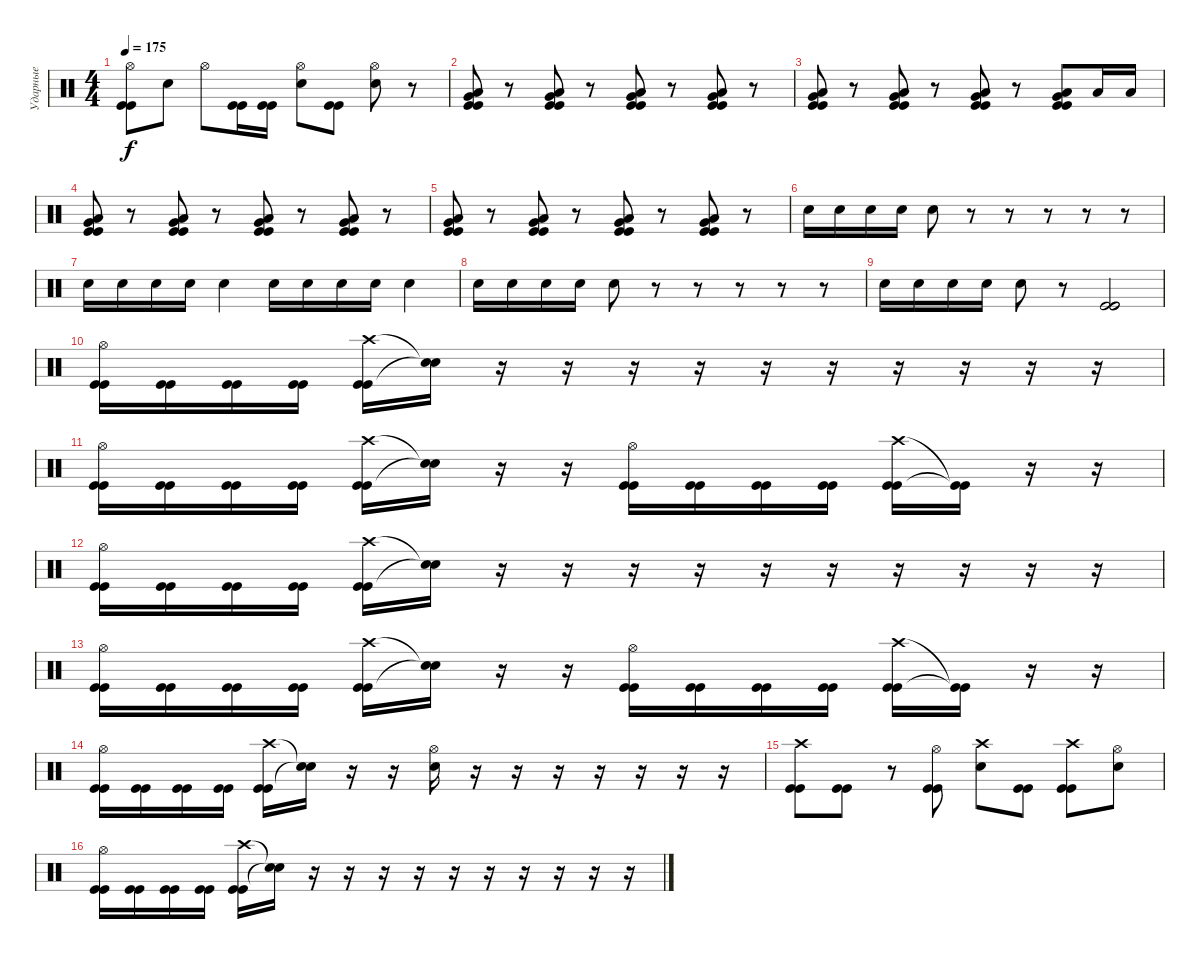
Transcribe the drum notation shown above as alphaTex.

\track ("Ударные" "Ударные") {instrument percussion}
\staff {score}
\articulation defaults
\ts (4 4)
\tempo 175
\clef neutral
\ks c
("Hi-Hat (open)" "Kick (hit)" "Kick (hit)").8{dy f} "Snare (hit) 2".8 "Hi-Hat (open)".8 ("Kick (hit)" "Kick (hit)").16 ("Kick (hit)" "Kick (hit)").16 ("Hi-Hat (open)" "Snare (hit) 2").8 ("Kick (hit)" "Kick (hit)").8 ("Hi-Hat (open)" "Snare (hit) 2").8 r.8 |
("Very Low Tom (hit)" "Low Floor Tom (hit)" "Kick (hit)" "Kick (hit)").8 r.8 ("Very Low Tom (hit)" "Low Floor Tom (hit)" "Kick (hit)" "Kick (hit)").8 r.8 ("Very Low Tom (hit)" "Low Floor Tom (hit)" "Kick (hit)" "Kick (hit)").8 r.8 ("Very Low Tom (hit)" "Low Floor Tom (hit)" "Kick (hit)" "Kick (hit)").8 r.8 |
("Very Low Tom (hit)" "Low Floor Tom (hit)" "Kick (hit)" "Kick (hit)").8 r.8 ("Very Low Tom (hit)" "Low Floor Tom (hit)" "Kick (hit)" "Kick (hit)").8 r.8 ("Very Low Tom (hit)" "Low Floor Tom (hit)" "Kick (hit)" "Kick (hit)").8 r.8 ("Very Low Tom (hit)" "Low Floor Tom (hit)" "Kick (hit)" "Kick (hit)").8 "Low Floor Tom (hit)".16 "Low Floor Tom (hit)".16 |
("Very Low Tom (hit)" "Low Floor Tom (hit)" "Kick (hit)" "Kick (hit)").8 r.8 ("Very Low Tom (hit)" "Low Floor Tom (hit)" "Kick (hit)" "Kick (hit)").8 r.8 ("Very Low Tom (hit)" "Low Floor Tom (hit)" "Kick (hit)" "Kick (hit)").8 r.8 ("Very Low Tom (hit)" "Low Floor Tom (hit)" "Kick (hit)" "Kick (hit)").8 r.8 |
("Very Low Tom (hit)" "Low Floor Tom (hit)" "Kick (hit)" "Kick (hit)").8 r.8 ("Very Low Tom (hit)" "Low Floor Tom (hit)" "Kick (hit)" "Kick (hit)").8 r.8 ("Very Low Tom (hit)" "Low Floor Tom (hit)" "Kick (hit)" "Kick (hit)").8 r.8 ("Very Low Tom (hit)" "Low Floor Tom (hit)" "Kick (hit)" "Kick (hit)").8 r.8 |
"Snare (hit) 2".16 "Snare (hit) 2".16 "Snare (hit) 2".16 "Snare (hit) 2".16 "Snare (hit) 2".8 r.8 r.8 r.8 r.8 r.8 |
"Snare (hit) 2".16 "Snare (hit) 2".16 "Snare (hit) 2".16 "Snare (hit) 2".16 "Snare (hit) 2".4 "Snare (hit) 2".16 "Snare (hit) 2".16 "Snare (hit) 2".16 "Snare (hit) 2".16 "Snare (hit) 2".4 |
"Snare (hit) 2".16 "Snare (hit) 2".16 "Snare (hit) 2".16 "Snare (hit) 2".16 "Snare (hit) 2".8 r.8 r.8 r.8 r.8 r.8 |
"Snare (hit) 2".16 "Snare (hit) 2".16 "Snare (hit) 2".16 "Snare (hit) 2".16 "Snare (hit) 2".8 r.8 ("Kick (hit)" "Kick (hit)" "Kick (hit)").2 |
("Hi-Hat (open)" "Kick (hit)" "Kick (hit)").16 ("Kick (hit)" "Kick (hit)").16 ("Kick (hit)" "Kick (hit)").16 ("Kick (hit)" "Kick (hit)").16 ("Crash high (hit)" "Kick (hit)" "Kick (hit)").16 ("Snare (hit)"{t} "Snare (hit)"{t}).16 r.16 r.16 r.16 r.16 r.16 r.16 r.16 r.16 r.16 r.16 |
("Hi-Hat (open)" "Kick (hit)" "Kick (hit)").16 ("Kick (hit)" "Kick (hit)").16 ("Kick (hit)" "Kick (hit)").16 ("Kick (hit)" "Kick (hit)").16 ("Crash high (hit)" "Kick (hit)" "Kick (hit)").16 ("Snare (hit)"{t} "Snare (hit)"{t}).16 r.16 r.16 ("Hi-Hat (open)" "Kick (hit)" "Kick (hit)").16 ("Kick (hit)" "Kick (hit)").16 ("Kick (hit)" "Kick (hit)").16 ("Kick (hit)" "Kick (hit)").16 ("Crash high (hit)" "Kick (hit)" "Kick (hit)").16 ("Kick (hit)"{t} "Kick (hit)"{t}).16 r.16 r.16 |
("Hi-Hat (open)" "Kick (hit)" "Kick (hit)").16 ("Kick (hit)" "Kick (hit)").16 ("Kick (hit)" "Kick (hit)").16 ("Kick (hit)" "Kick (hit)").16 ("Crash high (hit)" "Kick (hit)" "Kick (hit)").16 ("Snare (hit)"{t} "Snare (hit)"{t}).16 r.16 r.16 r.16 r.16 r.16 r.16 r.16 r.16 r.16 r.16 |
("Hi-Hat (open)" "Kick (hit)" "Kick (hit)").16 ("Kick (hit)" "Kick (hit)").16 ("Kick (hit)" "Kick (hit)").16 ("Kick (hit)" "Kick (hit)").16 ("Crash high (hit)" "Kick (hit)" "Kick (hit)").16 ("Snare (hit)"{t} "Snare (hit)"{t}).16 r.16 r.16 ("Hi-Hat (open)" "Kick (hit)" "Kick (hit)").16 ("Kick (hit)" "Kick (hit)").16 ("Kick (hit)" "Kick (hit)").16 ("Kick (hit)" "Kick (hit)").16 ("Crash high (hit)" "Kick (hit)" "Kick (hit)").16 ("Kick (hit)"{t} "Kick (hit)"{t}).16 r.16 r.16 |
("Hi-Hat (open)" "Kick (hit)" "Kick (hit)").16 ("Kick (hit)" "Kick (hit)").16 ("Kick (hit)" "Kick (hit)").16 ("Kick (hit)" "Kick (hit)").16 ("Crash high (hit)" "Kick (hit)" "Kick (hit)").16 ("Snare (hit)"{t} "Snare (hit)"{t}).16 r.16 r.16 ("Hi-Hat (open)" "Snare (hit) 2").16 r.16 r.16 r.16 r.16 r.16 r.16 r.16 |
("Crash high (hit)" "Kick (hit)" "Kick (hit)").8 ("Kick (hit)" "Kick (hit)").8 r.8 ("Hi-Hat (open)" "Kick (hit)" "Kick (hit)").8 ("Crash high (hit)" "Snare (hit) 2").8 ("Kick (hit)" "Kick (hit)").8 ("Crash high (hit)" "Kick (hit)" "Kick (hit)").8 ("Hi-Hat (open)" "Snare (hit) 2").8 |
("Hi-Hat (open)" "Kick (hit)" "Kick (hit)").16 ("Kick (hit)" "Kick (hit)").16 ("Kick (hit)" "Kick (hit)").16 ("Kick (hit)" "Kick (hit)").16 ("Crash high (hit)" "Kick (hit)" "Kick (hit)").16 ("Snare (hit)"{t} "Snare (hit)"{t}).16 r.16 r.16 r.16 r.16 r.16 r.16 r.16 r.16 r.16 r.16
